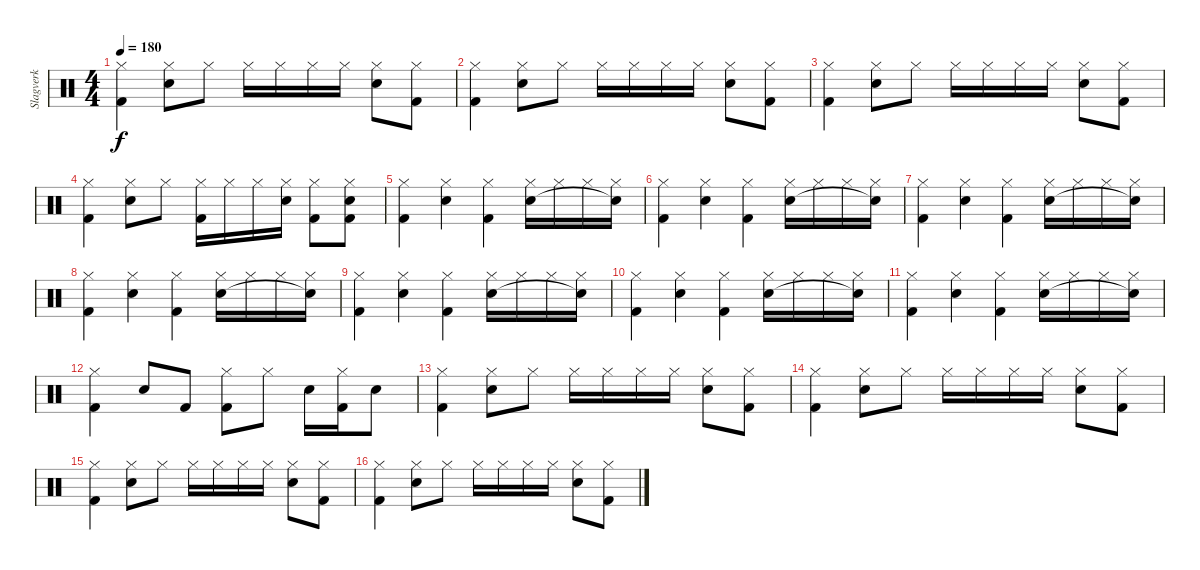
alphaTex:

\track ("Slagverk" "Slagverk") {instrument percussion}
\staff {score}
\articulation defaults
\ts (4 4)
\tempo 180
\clef neutral
\ks c
("Hi-Hat (closed)" "Kick (hit) 2").4{dy f} ("Hi-Hat (closed)" "Snare (hit) 2").8 "Hi-Hat (closed)".8 "Hi-Hat (closed)".16 "Hi-Hat (closed)".16 "Hi-Hat (closed)".16 "Hi-Hat (closed)".16 ("Hi-Hat (closed)" "Snare (hit) 2").8 ("Hi-Hat (closed)" "Kick (hit) 2").8 |
("Hi-Hat (closed)" "Kick (hit) 2").4 ("Hi-Hat (closed)" "Snare (hit) 2").8 "Hi-Hat (closed)".8 "Hi-Hat (closed)".16 "Hi-Hat (closed)".16 "Hi-Hat (closed)".16 "Hi-Hat (closed)".16 ("Hi-Hat (closed)" "Snare (hit) 2").8 ("Hi-Hat (closed)" "Kick (hit) 2").8 |
("Hi-Hat (closed)" "Kick (hit) 2").4 ("Hi-Hat (closed)" "Snare (hit) 2").8 "Hi-Hat (closed)".8 "Hi-Hat (closed)".16 "Hi-Hat (closed)".16 "Hi-Hat (closed)".16 "Hi-Hat (closed)".16 ("Hi-Hat (closed)" "Snare (hit) 2").8 ("Hi-Hat (closed)" "Kick (hit) 2").8 |
("Hi-Hat (closed)" "Kick (hit) 2").4 ("Hi-Hat (closed)" "Snare (hit) 2").8 "Hi-Hat (closed)".8 ("Hi-Hat (closed)" "Kick (hit) 2").16 "Hi-Hat (closed)".16 "Hi-Hat (closed)".16 ("Hi-Hat (closed)" "Snare (hit) 2").16 ("Hi-Hat (closed)" "Kick (hit) 2").8 ("Hi-Hat (closed)" "Snare (hit) 2" "Kick (hit) 2").8 |
("Hi-Hat (closed)" "Kick (hit) 2").4 ("Hi-Hat (closed)" "Snare (hit) 2").4 ("Hi-Hat (closed)" "Kick (hit) 2").4 ("Hi-Hat (closed)" "Snare (hit) 2").16 "Hi-Hat (closed)".16 "Hi-Hat (closed)".16 ("Hi-Hat (closed)" "Snare (hit)"{t}).16 |
("Hi-Hat (closed)" "Kick (hit) 2").4 ("Hi-Hat (closed)" "Snare (hit) 2").4 ("Hi-Hat (closed)" "Kick (hit) 2").4 ("Hi-Hat (closed)" "Snare (hit) 2").16 "Hi-Hat (closed)".16 "Hi-Hat (closed)".16 ("Hi-Hat (closed)" "Snare (hit)"{t}).16 |
("Hi-Hat (closed)" "Kick (hit) 2").4 ("Hi-Hat (closed)" "Snare (hit) 2").4 ("Hi-Hat (closed)" "Kick (hit) 2").4 ("Hi-Hat (closed)" "Snare (hit) 2").16 "Hi-Hat (closed)".16 "Hi-Hat (closed)".16 ("Hi-Hat (closed)" "Snare (hit)"{t}).16 |
("Hi-Hat (closed)" "Kick (hit) 2").4 ("Hi-Hat (closed)" "Snare (hit) 2").4 ("Hi-Hat (closed)" "Kick (hit) 2").4 ("Hi-Hat (closed)" "Snare (hit) 2").16 "Hi-Hat (closed)".16 "Hi-Hat (closed)".16 ("Hi-Hat (closed)" "Snare (hit)"{t}).16 |
("Hi-Hat (closed)" "Kick (hit) 2").4 ("Hi-Hat (closed)" "Snare (hit) 2").4 ("Hi-Hat (closed)" "Kick (hit) 2").4 ("Hi-Hat (closed)" "Snare (hit) 2").16 "Hi-Hat (closed)".16 "Hi-Hat (closed)".16 ("Hi-Hat (closed)" "Snare (hit)"{t}).16 |
("Hi-Hat (closed)" "Kick (hit) 2").4 ("Hi-Hat (closed)" "Snare (hit) 2").4 ("Hi-Hat (closed)" "Kick (hit) 2").4 ("Hi-Hat (closed)" "Snare (hit) 2").16 "Hi-Hat (closed)".16 "Hi-Hat (closed)".16 ("Hi-Hat (closed)" "Snare (hit)"{t}).16 |
("Hi-Hat (closed)" "Kick (hit) 2").4 ("Hi-Hat (closed)" "Snare (hit) 2").4 ("Hi-Hat (closed)" "Kick (hit) 2").4 ("Hi-Hat (closed)" "Snare (hit) 2").16 "Hi-Hat (closed)".16 "Hi-Hat (closed)".16 ("Hi-Hat (closed)" "Snare (hit)"{t}).16 |
("Hi-Hat (closed)" "Kick (hit) 2").4 "Snare (hit) 2".8 "Kick (hit) 2".8 ("Hi-Hat (closed)" "Kick (hit) 2").8 "Hi-Hat (closed)".8 "Snare (hit) 2".16 ("Hi-Hat (closed)" "Kick (hit) 2").16 "Snare (hit) 2".8 |
("Hi-Hat (closed)" "Kick (hit) 2").4 ("Hi-Hat (closed)" "Snare (hit) 2").8 "Hi-Hat (closed)".8 "Hi-Hat (closed)".16 "Hi-Hat (closed)".16 "Hi-Hat (closed)".16 "Hi-Hat (closed)".16 ("Hi-Hat (closed)" "Snare (hit) 2").8 ("Hi-Hat (closed)" "Kick (hit) 2").8 |
("Hi-Hat (closed)" "Kick (hit) 2").4 ("Hi-Hat (closed)" "Snare (hit) 2").8 "Hi-Hat (closed)".8 "Hi-Hat (closed)".16 "Hi-Hat (closed)".16 "Hi-Hat (closed)".16 "Hi-Hat (closed)".16 ("Hi-Hat (closed)" "Snare (hit) 2").8 ("Hi-Hat (closed)" "Kick (hit) 2").8 |
("Hi-Hat (closed)" "Kick (hit) 2").4 ("Hi-Hat (closed)" "Snare (hit) 2").8 "Hi-Hat (closed)".8 "Hi-Hat (closed)".16 "Hi-Hat (closed)".16 "Hi-Hat (closed)".16 "Hi-Hat (closed)".16 ("Hi-Hat (closed)" "Snare (hit) 2").8 ("Hi-Hat (closed)" "Kick (hit) 2").8 |
("Hi-Hat (closed)" "Kick (hit) 2").4 ("Hi-Hat (closed)" "Snare (hit) 2").8 "Hi-Hat (closed)".8 "Hi-Hat (closed)".16 "Hi-Hat (closed)".16 "Hi-Hat (closed)".16 "Hi-Hat (closed)".16 ("Hi-Hat (closed)" "Snare (hit) 2").8 ("Hi-Hat (closed)" "Kick (hit) 2").8
